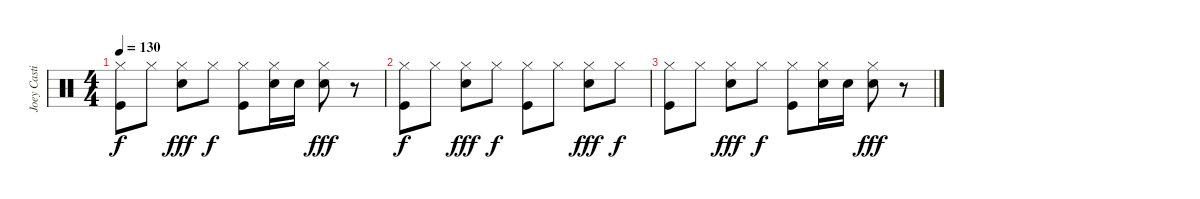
\track ("Joey Castillo - drums" "Joey Casti") {instrument percussion}
\staff {score}
\articulation defaults
\ts (4 4)
\tempo 130
\clef neutral
\ks c
("Hi-Hat (closed)" "Kick (hit)").8{dy f} "Hi-Hat (closed)".8 ("Hi-Hat (closed)" "Electric Snare (hit)").8{dy fff} "Hi-Hat (closed)".8{dy f} ("Hi-Hat (closed)" "Kick (hit)").8 ("Hi-Hat (closed)" "Electric Snare (hit)").16 "Electric Snare (hit)".16 ("Hi-Hat (closed)" "Electric Snare (hit)").8{dy fff} r.8 |
("Hi-Hat (closed)" "Kick (hit)").8{dy f} "Hi-Hat (closed)".8 ("Hi-Hat (closed)" "Electric Snare (hit)").8{dy fff} "Hi-Hat (closed)".8{dy f} ("Hi-Hat (closed)" "Kick (hit)").8 "Hi-Hat (closed)".8 ("Hi-Hat (closed)" "Electric Snare (hit)").8{dy fff} "Hi-Hat (closed)".8{dy f} |
("Hi-Hat (closed)" "Kick (hit)").8 "Hi-Hat (closed)".8 ("Hi-Hat (closed)" "Electric Snare (hit)").8{dy fff} "Hi-Hat (closed)".8{dy f} ("Hi-Hat (closed)" "Kick (hit)").8 ("Hi-Hat (closed)" "Electric Snare (hit)").16 "Electric Snare (hit)".16 ("Hi-Hat (closed)" "Electric Snare (hit)").8{dy fff} r.8
